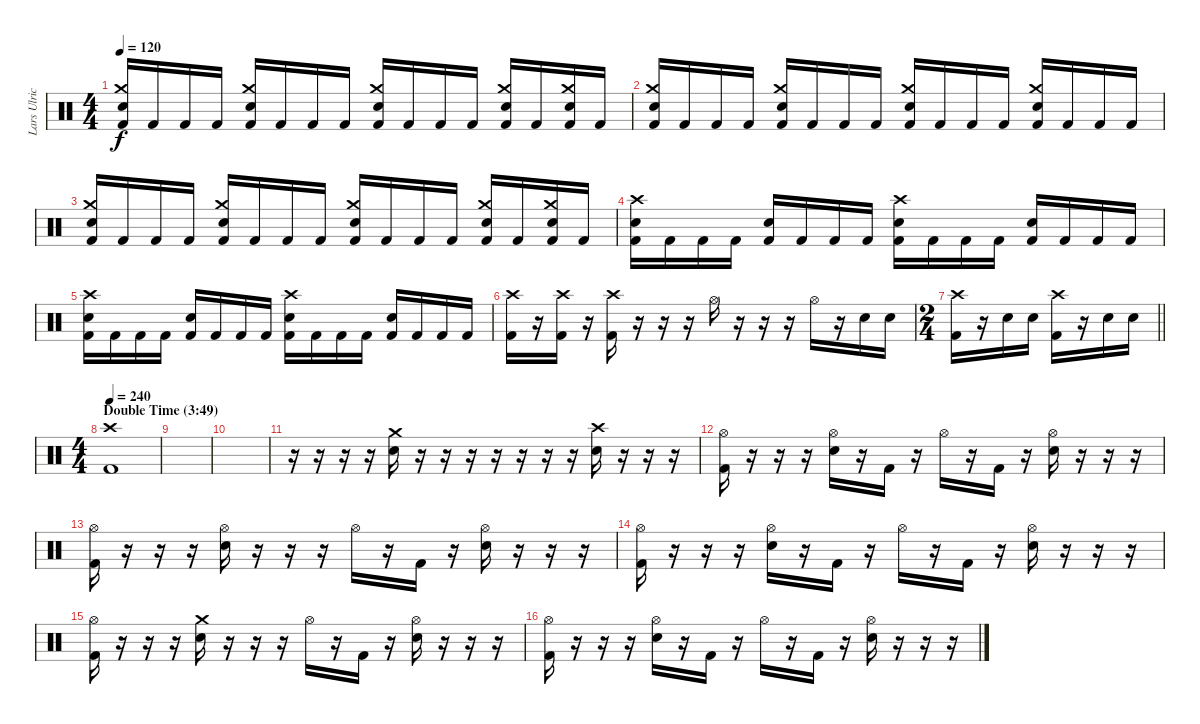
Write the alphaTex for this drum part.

\track ("Lars Ulrich" "Lars Ulric") {instrument percussion}
\staff {score}
\articulation defaults
\ts (4 4)
\tempo 120
\clef neutral
\ks c
("Electric Snare (hit)" "Crash medium (hit)" "Kick (hit) 2").16{dy f} "Kick (hit) 2".16 "Kick (hit) 2".16 "Kick (hit) 2".16 ("Electric Snare (hit)" "Crash medium (hit)" "Kick (hit) 2").16 "Kick (hit) 2".16 "Kick (hit) 2".16 "Kick (hit) 2".16 ("Electric Snare (hit)" "Crash medium (hit)" "Kick (hit) 2").16 "Kick (hit) 2".16 "Kick (hit) 2".16 "Kick (hit) 2".16 ("Electric Snare (hit)" "Crash medium (hit)" "Kick (hit) 2").16 "Kick (hit) 2".16 ("Electric Snare (hit)" "Crash medium (hit)" "Kick (hit) 2").16 "Kick (hit) 2".16 |
("Electric Snare (hit)" "Crash medium (hit)" "Kick (hit) 2").16 "Kick (hit) 2".16 "Kick (hit) 2".16 "Kick (hit) 2".16 ("Electric Snare (hit)" "Crash medium (hit)" "Kick (hit) 2").16 "Kick (hit) 2".16 "Kick (hit) 2".16 "Kick (hit) 2".16 ("Electric Snare (hit)" "Crash medium (hit)" "Kick (hit) 2").16 "Kick (hit) 2".16 "Kick (hit) 2".16 "Kick (hit) 2".16 ("Electric Snare (hit)" "Crash medium (hit)" "Kick (hit) 2").16 "Kick (hit) 2".16 "Kick (hit) 2".16 "Kick (hit) 2".16 |
("Electric Snare (hit)" "Crash medium (hit)" "Kick (hit) 2").16 "Kick (hit) 2".16 "Kick (hit) 2".16 "Kick (hit) 2".16 ("Electric Snare (hit)" "Crash medium (hit)" "Kick (hit) 2").16 "Kick (hit) 2".16 "Kick (hit) 2".16 "Kick (hit) 2".16 ("Electric Snare (hit)" "Crash medium (hit)" "Kick (hit) 2").16 "Kick (hit) 2".16 "Kick (hit) 2".16 "Kick (hit) 2".16 ("Electric Snare (hit)" "Crash medium (hit)" "Kick (hit) 2").16 "Kick (hit) 2".16 ("Electric Snare (hit)" "Crash medium (hit)" "Kick (hit) 2").16 "Kick (hit) 2".16 |
("Crash high (hit)" "Electric Snare (hit)" "Kick (hit) 2").16 "Kick (hit) 2".16 "Kick (hit) 2".16 "Kick (hit) 2".16 ("Electric Snare (hit)" "Kick (hit) 2").16 "Kick (hit) 2".16 "Kick (hit) 2".16 "Kick (hit) 2".16 ("Crash high (hit)" "Electric Snare (hit)" "Kick (hit) 2").16 "Kick (hit) 2".16 "Kick (hit) 2".16 "Kick (hit) 2".16 ("Electric Snare (hit)" "Kick (hit) 2").16 "Kick (hit) 2".16 "Kick (hit) 2".16 "Kick (hit) 2".16 |
("Crash high (hit)" "Electric Snare (hit)" "Kick (hit) 2").16 "Kick (hit) 2".16 "Kick (hit) 2".16 "Kick (hit) 2".16 ("Electric Snare (hit)" "Kick (hit) 2").16 "Kick (hit) 2".16 "Kick (hit) 2".16 "Kick (hit) 2".16 ("Crash high (hit)" "Electric Snare (hit)" "Kick (hit) 2").16 "Kick (hit) 2".16 "Kick (hit) 2".16 "Kick (hit) 2".16 ("Electric Snare (hit)" "Kick (hit) 2").16 "Kick (hit) 2".16 "Kick (hit) 2".16 "Kick (hit) 2".16 |
("Crash high (hit)" "Kick (hit) 2").16 r.16 ("Crash high (hit)" "Kick (hit) 2").16 r.16 ("Crash high (hit)" "Kick (hit) 2").16 r.16 r.16 r.16 "Hi-Hat (open)".16 r.16 r.16 r.16 "Hi-Hat (open)".16 r.16 "Electric Snare (hit)".16 "Electric Snare (hit)".16 |
\ts (2 4)
\barLineRight lightlight
("Crash high (hit)" "Kick (hit) 2").16 r.16 "Electric Snare (hit)".16 "Electric Snare (hit)".16 ("Crash high (hit)" "Kick (hit) 2").16 r.16 "Electric Snare (hit)".16 "Electric Snare (hit)".16 |
\ts (4 4)
\section ("" "Double Time (3:49)")
\tempo 240
("Crash high (hit)" "Kick (hit) 2").1 |
|
|
r.16 r.16 r.16 r.16 ("Electric Snare (hit)" "Crash medium (hit)").16 r.16 r.16 r.16 r.16 r.16 r.16 r.16 ("Crash high (hit)" "Electric Snare (hit)").16 r.16 r.16 r.16 |
("Hi-Hat (open)" "Kick (hit) 2").16 r.16 r.16 r.16 ("Electric Snare (hit)" "Hi-Hat (open)").16 r.16 "Kick (hit) 2".16 r.16 "Hi-Hat (open)".16 r.16 "Kick (hit) 2".16 r.16 ("Electric Snare (hit)" "Hi-Hat (open)").16 r.16 r.16 r.16 |
("Hi-Hat (open)" "Kick (hit) 2").16 r.16 r.16 r.16 ("Electric Snare (hit)" "Hi-Hat (open)").16 r.16 r.16 r.16 "Hi-Hat (open)".16 r.16 "Kick (hit) 2".16 r.16 ("Electric Snare (hit)" "Hi-Hat (open)").16 r.16 r.16 r.16 |
("Hi-Hat (open)" "Kick (hit) 2").16 r.16 r.16 r.16 ("Electric Snare (hit)" "Hi-Hat (open)").16 r.16 "Kick (hit) 2".16 r.16 "Hi-Hat (open)".16 r.16 "Kick (hit) 2".16 r.16 ("Electric Snare (hit)" "Hi-Hat (open)").16 r.16 r.16 r.16 |
("Hi-Hat (open)" "Kick (hit) 2").16 r.16 r.16 r.16 ("Electric Snare (hit)" "Crash medium (hit)").16 r.16 r.16 r.16 "Hi-Hat (open)".16 r.16 "Kick (hit) 2".16 r.16 ("Electric Snare (hit)" "Hi-Hat (open)").16 r.16 r.16 r.16 |
("Hi-Hat (open)" "Kick (hit) 2").16 r.16 r.16 r.16 ("Electric Snare (hit)" "Hi-Hat (open)").16 r.16 "Kick (hit) 2".16 r.16 "Hi-Hat (open)".16 r.16 "Kick (hit) 2".16 r.16 ("Electric Snare (hit)" "Hi-Hat (open)").16 r.16 r.16 r.16
